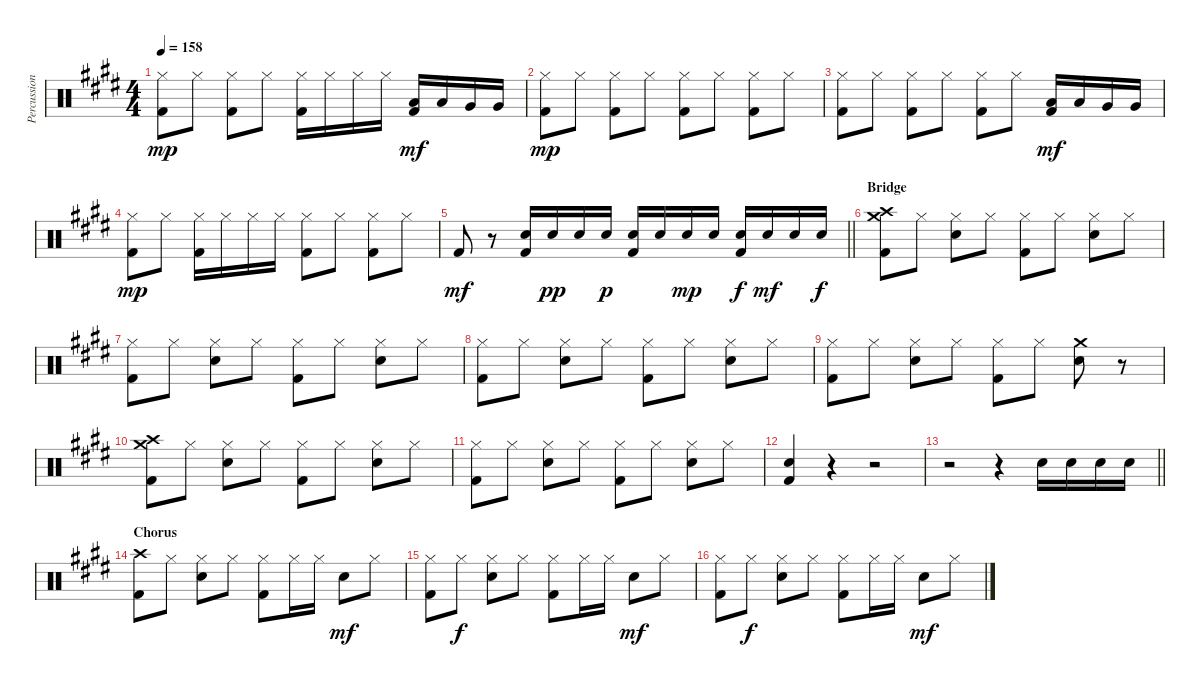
\track ("Percussion" "Percussion") {instrument percussion}
\staff {score}
\articulation defaults
\ts (4 4)
\tempo 158
\clef neutral
\ks e
("Hi-Hat (closed)" "Kick (hit) 2").8{dy mp} "Hi-Hat (closed)".8 ("Hi-Hat (closed)" "Kick (hit) 2").8 "Hi-Hat (closed)".8 ("Hi-Hat (closed)" "Kick (hit) 2").16 "Hi-Hat (closed)".16 "Hi-Hat (closed)".16 "Hi-Hat (closed)".16 ("Low Tom (hit)" "Kick (hit) 2").16{dy mf} "Low Tom (hit)".16 "Very Low Tom (hit)".16 "Very Low Tom (hit)".16 |
("Hi-Hat (closed)" "Kick (hit) 2").8{dy mp} "Hi-Hat (closed)".8 ("Hi-Hat (closed)" "Kick (hit) 2").8 "Hi-Hat (closed)".8 ("Hi-Hat (closed)" "Kick (hit) 2").8 "Hi-Hat (closed)".8 ("Hi-Hat (closed)" "Kick (hit) 2").8 "Hi-Hat (closed)".8 |
("Hi-Hat (closed)" "Kick (hit) 2").8 "Hi-Hat (closed)".8 ("Hi-Hat (closed)" "Kick (hit) 2").8 "Hi-Hat (closed)".8 ("Hi-Hat (closed)" "Kick (hit) 2").8 "Hi-Hat (closed)".8 ("Low Tom (hit)" "Kick (hit) 2").16{dy mf} "Low Tom (hit)".16 "Very Low Tom (hit)".16 "Very Low Tom (hit)".16 |
("Hi-Hat (closed)" "Kick (hit) 2").8{dy mp} "Hi-Hat (closed)".8 ("Hi-Hat (closed)" "Kick (hit) 2").16 "Hi-Hat (closed)".16 "Hi-Hat (closed)".16 "Hi-Hat (closed)".16 ("Hi-Hat (closed)" "Kick (hit) 2").8 "Hi-Hat (closed)".8 ("Hi-Hat (closed)" "Kick (hit) 2").8 "Hi-Hat (closed)".8 |
\barLineRight lightlight "Kick (hit) 2".8{dy mf}
r.8 ("Snare (hit) 2" "Kick (hit) 2").16 "Snare (hit) 2".16{dy pp} "Snare (hit) 2".16 "Snare (hit) 2".16{dy p} ("Snare (hit) 2" "Kick (hit) 2").16 "Snare (hit) 2".16 "Snare (hit) 2".16{dy mp} "Snare (hit) 2".16 ("Snare (hit) 2" "Kick (hit) 2").16{dy f} "Snare (hit) 2".16{dy mf} "Snare (hit) 2".16 "Snare (hit) 2".16{dy f} |
\section ("" "Bridge")
("Crash high (hit)" "Crash medium (hit)" "Kick (hit) 2").8 "Hi-Hat (closed)".8 ("Hi-Hat (closed)" "Snare (hit) 2").8 "Hi-Hat (closed)".8 ("Hi-Hat (closed)" "Kick (hit) 2").8 "Hi-Hat (closed)".8 ("Hi-Hat (closed)" "Snare (hit) 2").8 "Hi-Hat (closed)".8 |
("Hi-Hat (closed)" "Kick (hit) 2").8 "Hi-Hat (closed)".8 ("Hi-Hat (closed)" "Snare (hit) 2").8 "Hi-Hat (closed)".8 ("Hi-Hat (closed)" "Kick (hit) 2").8 "Hi-Hat (closed)".8 ("Hi-Hat (closed)" "Snare (hit) 2").8 "Hi-Hat (closed)".8 |
("Hi-Hat (closed)" "Kick (hit) 2").8 "Hi-Hat (closed)".8 ("Hi-Hat (closed)" "Snare (hit) 2").8 "Hi-Hat (closed)".8 ("Hi-Hat (closed)" "Kick (hit) 2").8 "Hi-Hat (closed)".8 ("Hi-Hat (closed)" "Snare (hit) 2").8 "Hi-Hat (closed)".8 |
("Hi-Hat (closed)" "Kick (hit) 2").8 "Hi-Hat (closed)".8 ("Hi-Hat (closed)" "Snare (hit) 2").8 "Hi-Hat (closed)".8 ("Hi-Hat (closed)" "Kick (hit) 2").8 "Hi-Hat (closed)".8 ("Crash medium (hit)" "Snare (hit) 2").8 r.8 |
("Crash high (hit)" "Crash medium (hit)" "Kick (hit) 2").8 "Hi-Hat (closed)".8 ("Hi-Hat (closed)" "Snare (hit) 2").8 "Hi-Hat (closed)".8 ("Hi-Hat (closed)" "Kick (hit) 2").8 "Hi-Hat (closed)".8 ("Hi-Hat (closed)" "Snare (hit) 2").8 "Hi-Hat (closed)".8 |
("Hi-Hat (closed)" "Kick (hit) 2").8 "Hi-Hat (closed)".8 ("Hi-Hat (closed)" "Snare (hit) 2").8 "Hi-Hat (closed)".8 ("Hi-Hat (closed)" "Kick (hit) 2").8 "Hi-Hat (closed)".8 ("Hi-Hat (closed)" "Snare (hit) 2").8 "Hi-Hat (closed)".8 |
("Snare (hit) 2" "Kick (hit) 2").4 r.4 r.2 |
\barLineRight lightlight
r.2 r.4 "Snare (hit) 2".16 "Snare (hit) 2".16 "Snare (hit) 2".16 "Snare (hit) 2".16 |
\section ("" "Chorus")
("Crash high (hit)" "Kick (hit) 2").8 "Hi-Hat (closed)".8 ("Hi-Hat (closed)" "Snare (hit) 2").8 "Hi-Hat (closed)".8 ("Hi-Hat (closed)" "Kick (hit) 2").8 "Hi-Hat (closed)".16 "Hi-Hat (closed)".16 "Snare (hit) 2".8{dy mf} "Hi-Hat (closed)".8 |
("Hi-Hat (closed)" "Kick (hit) 2").8 "Hi-Hat (closed)".8{dy f} ("Hi-Hat (closed)" "Snare (hit) 2").8 "Hi-Hat (closed)".8 ("Hi-Hat (closed)" "Kick (hit) 2").8 "Hi-Hat (closed)".16 "Hi-Hat (closed)".16 "Snare (hit) 2".8{dy mf} "Hi-Hat (closed)".8 |
("Hi-Hat (closed)" "Kick (hit) 2").8 "Hi-Hat (closed)".8{dy f} ("Hi-Hat (closed)" "Snare (hit) 2").8 "Hi-Hat (closed)".8 ("Hi-Hat (closed)" "Kick (hit) 2").8 "Hi-Hat (closed)".16 "Hi-Hat (closed)".16 "Snare (hit) 2".8{dy mf} "Hi-Hat (closed)".8
